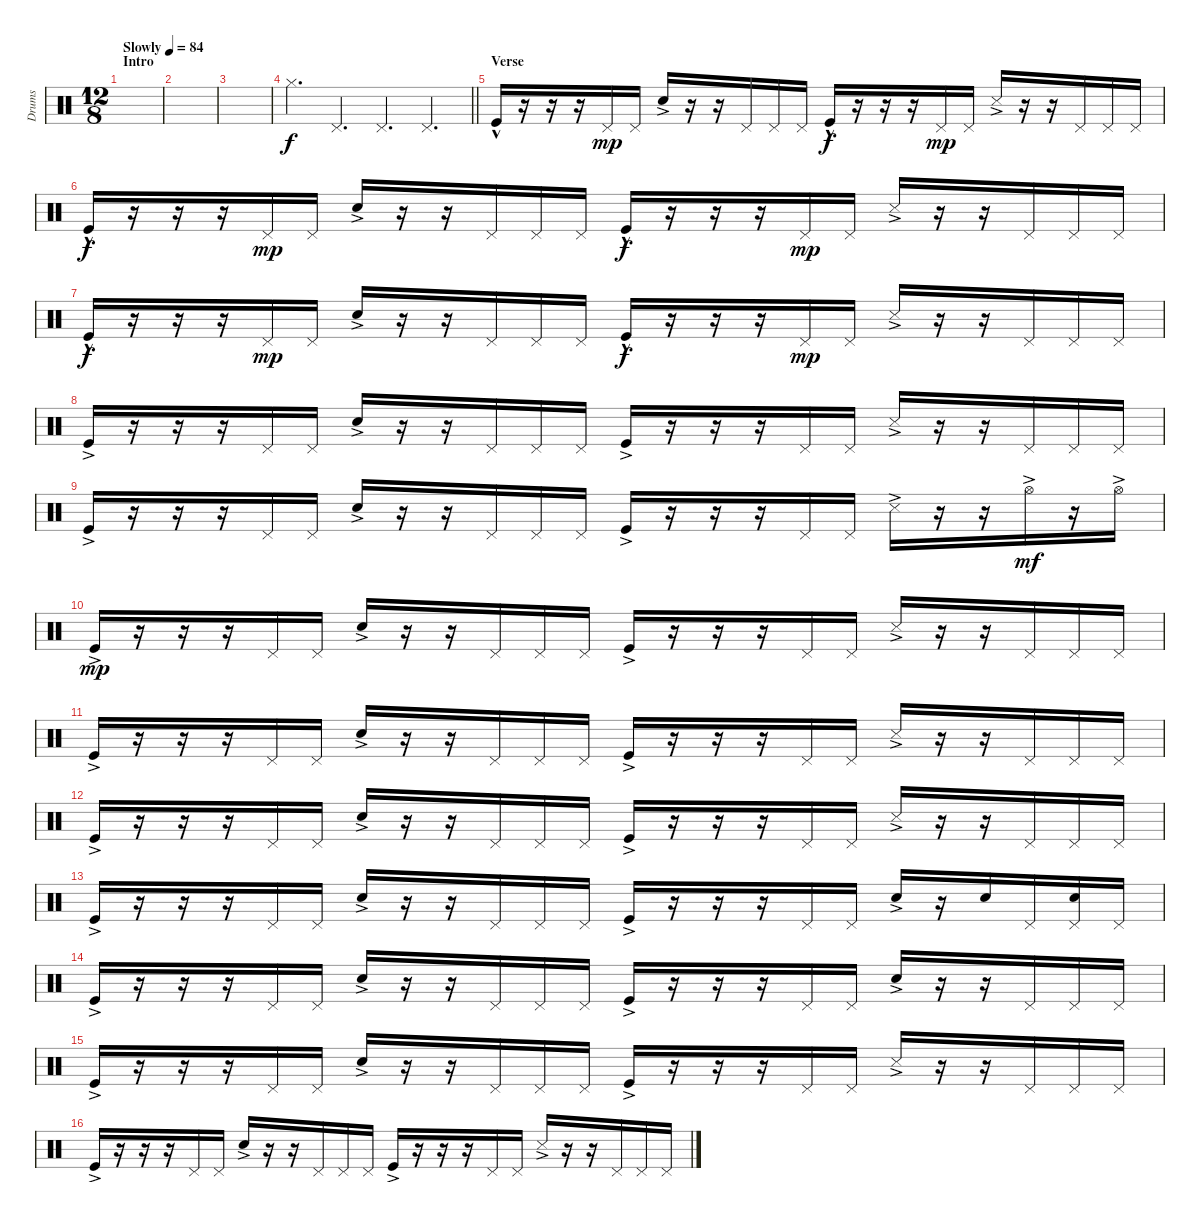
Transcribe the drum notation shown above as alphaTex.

\track ("Drums" "Drums") {instrument percussion}
\staff {score}
\articulation defaults
\ts (12 8)
\section ("" "Intro")
\tempo (84 "Slowly")
\clef neutral
\ks c
|
|
|
\barLineRight lightlight "Hi-Hat (closed)".4{d} "Pedal Hi-Hat (hit)".4{d} "Pedal Hi-Hat (hit)".4{d} "Pedal Hi-Hat (hit)".4{d}
|
\section ("" "Verse")
"Kick (hit)"{hac}.16{dy f} r.16 r.16 r.16 "Pedal Hi-Hat (hit)".16{dy mp} "Pedal Hi-Hat (hit)".16 "Electric Snare (hit)"{ac}.16 r.16 r.16 "Pedal Hi-Hat (hit)".16 "Pedal Hi-Hat (hit)".16 "Pedal Hi-Hat (hit)".16 "Kick (hit)"{hac}.16{dy f} r.16 r.16 r.16 "Pedal Hi-Hat (hit)".16{dy mp} "Pedal Hi-Hat (hit)".16 "Snare (side stick) 3"{ac}.16 r.16 r.16 "Pedal Hi-Hat (hit)".16 "Pedal Hi-Hat (hit)".16 "Pedal Hi-Hat (hit)".16 |
"Kick (hit)"{hac}.16{dy f} r.16 r.16 r.16 "Pedal Hi-Hat (hit)".16{dy mp} "Pedal Hi-Hat (hit)".16 "Electric Snare (hit)"{ac}.16 r.16 r.16 "Pedal Hi-Hat (hit)".16 "Pedal Hi-Hat (hit)".16 "Pedal Hi-Hat (hit)".16 "Kick (hit)"{hac}.16{dy f} r.16 r.16 r.16 "Pedal Hi-Hat (hit)".16{dy mp} "Pedal Hi-Hat (hit)".16 "Snare (side stick) 3"{ac}.16 r.16 r.16 "Pedal Hi-Hat (hit)".16 "Pedal Hi-Hat (hit)".16 "Pedal Hi-Hat (hit)".16 |
"Kick (hit)"{hac}.16{dy f} r.16 r.16 r.16 "Pedal Hi-Hat (hit)".16{dy mp} "Pedal Hi-Hat (hit)".16 "Electric Snare (hit)"{ac}.16 r.16 r.16 "Pedal Hi-Hat (hit)".16 "Pedal Hi-Hat (hit)".16 "Pedal Hi-Hat (hit)".16 "Kick (hit)"{hac}.16{dy f} r.16 r.16 r.16 "Pedal Hi-Hat (hit)".16{dy mp} "Pedal Hi-Hat (hit)".16 "Snare (side stick) 3"{ac}.16 r.16 r.16 "Pedal Hi-Hat (hit)".16 "Pedal Hi-Hat (hit)".16 "Pedal Hi-Hat (hit)".16 |
"Kick (hit)"{ac}.16 r.16 r.16 r.16 "Pedal Hi-Hat (hit)".16 "Pedal Hi-Hat (hit)".16 "Electric Snare (hit)"{ac}.16 r.16 r.16 "Pedal Hi-Hat (hit)".16 "Pedal Hi-Hat (hit)".16 "Pedal Hi-Hat (hit)".16 "Kick (hit)"{ac}.16 r.16 r.16 r.16 "Pedal Hi-Hat (hit)".16 "Pedal Hi-Hat (hit)".16 "Snare (side stick) 3"{ac}.16 r.16 r.16 "Pedal Hi-Hat (hit)".16 "Pedal Hi-Hat (hit)".16 "Pedal Hi-Hat (hit)".16 |
"Kick (hit)"{ac}.16 r.16 r.16 r.16 "Pedal Hi-Hat (hit)".16 "Pedal Hi-Hat (hit)".16 "Electric Snare (hit)"{ac}.16 r.16 r.16 "Pedal Hi-Hat (hit)".16 "Pedal Hi-Hat (hit)".16 "Pedal Hi-Hat (hit)".16 "Kick (hit)"{ac}.16 r.16 r.16 r.16 "Pedal Hi-Hat (hit)".16 "Pedal Hi-Hat (hit)".16 "Snare (side stick) 3"{ac}.16 r.16 r.16 "Hi-Hat (open)"{ac}.16{dy mf} r.16 "Hi-Hat (open)"{ac}.16 |
"Kick (hit)"{ac}.16{dy mp} r.16 r.16 r.16 "Pedal Hi-Hat (hit)".16 "Pedal Hi-Hat (hit)".16 "Electric Snare (hit)"{ac}.16 r.16 r.16 "Pedal Hi-Hat (hit)".16 "Pedal Hi-Hat (hit)".16 "Pedal Hi-Hat (hit)".16 "Kick (hit)"{ac}.16 r.16 r.16 r.16 "Pedal Hi-Hat (hit)".16 "Pedal Hi-Hat (hit)".16 "Snare (side stick) 3"{ac}.16 r.16 r.16 "Pedal Hi-Hat (hit)".16 "Pedal Hi-Hat (hit)".16 "Pedal Hi-Hat (hit)".16 |
"Kick (hit)"{ac}.16 r.16 r.16 r.16 "Pedal Hi-Hat (hit)".16 "Pedal Hi-Hat (hit)".16 "Electric Snare (hit)"{ac}.16 r.16 r.16 "Pedal Hi-Hat (hit)".16 "Pedal Hi-Hat (hit)".16 "Pedal Hi-Hat (hit)".16 "Kick (hit)"{ac}.16 r.16 r.16 r.16 "Pedal Hi-Hat (hit)".16 "Pedal Hi-Hat (hit)".16 "Snare (side stick) 3"{ac}.16 r.16 r.16 "Pedal Hi-Hat (hit)".16 "Pedal Hi-Hat (hit)".16 "Pedal Hi-Hat (hit)".16 |
"Kick (hit)"{ac}.16 r.16 r.16 r.16 "Pedal Hi-Hat (hit)".16 "Pedal Hi-Hat (hit)".16 "Electric Snare (hit)"{ac}.16 r.16 r.16 "Pedal Hi-Hat (hit)".16 "Pedal Hi-Hat (hit)".16 "Pedal Hi-Hat (hit)".16 "Kick (hit)"{ac}.16 r.16 r.16 r.16 "Pedal Hi-Hat (hit)".16 "Pedal Hi-Hat (hit)".16 "Snare (side stick) 3"{ac}.16 r.16 r.16 "Pedal Hi-Hat (hit)".16 "Pedal Hi-Hat (hit)".16 "Pedal Hi-Hat (hit)".16 |
"Kick (hit)"{ac}.16 r.16 r.16 r.16 "Pedal Hi-Hat (hit)".16 "Pedal Hi-Hat (hit)".16 "Electric Snare (hit)"{ac}.16 r.16 r.16 "Pedal Hi-Hat (hit)".16 "Pedal Hi-Hat (hit)".16 "Pedal Hi-Hat (hit)".16 "Kick (hit)"{ac}.16 r.16 r.16 r.16 "Pedal Hi-Hat (hit)".16 "Pedal Hi-Hat (hit)".16 "Electric Snare (hit)"{ac}.16 r.16 "Electric Snare (hit)".16 "Pedal Hi-Hat (hit)".16 ("Pedal Hi-Hat (hit)" "Electric Snare (hit)").16 "Pedal Hi-Hat (hit)".16 |
"Kick (hit)"{ac}.16 r.16 r.16 r.16 "Pedal Hi-Hat (hit)".16 "Pedal Hi-Hat (hit)".16 "Electric Snare (hit)"{ac}.16 r.16 r.16 "Pedal Hi-Hat (hit)".16 "Pedal Hi-Hat (hit)".16 "Pedal Hi-Hat (hit)".16 "Kick (hit)"{ac}.16 r.16 r.16 r.16 "Pedal Hi-Hat (hit)".16 "Pedal Hi-Hat (hit)".16 "Electric Snare (hit)"{ac}.16 r.16 r.16 "Pedal Hi-Hat (hit)".16 "Pedal Hi-Hat (hit)".16 "Pedal Hi-Hat (hit)".16 |
"Kick (hit)"{ac}.16 r.16 r.16 r.16 "Pedal Hi-Hat (hit)".16 "Pedal Hi-Hat (hit)".16 "Electric Snare (hit)"{ac}.16 r.16 r.16 "Pedal Hi-Hat (hit)".16 "Pedal Hi-Hat (hit)".16 "Pedal Hi-Hat (hit)".16 "Kick (hit)"{ac}.16 r.16 r.16 r.16 "Pedal Hi-Hat (hit)".16 "Pedal Hi-Hat (hit)".16 "Snare (side stick) 3"{ac}.16 r.16 r.16 "Pedal Hi-Hat (hit)".16 "Pedal Hi-Hat (hit)".16 "Pedal Hi-Hat (hit)".16 |
"Kick (hit)"{ac}.16 r.16 r.16 r.16 "Pedal Hi-Hat (hit)".16 "Pedal Hi-Hat (hit)".16 "Electric Snare (hit)"{ac}.16 r.16 r.16 "Pedal Hi-Hat (hit)".16 "Pedal Hi-Hat (hit)".16 "Pedal Hi-Hat (hit)".16 "Kick (hit)"{ac}.16 r.16 r.16 r.16 "Pedal Hi-Hat (hit)".16 "Pedal Hi-Hat (hit)".16 "Snare (side stick) 3"{ac}.16 r.16 r.16 "Pedal Hi-Hat (hit)".16 "Pedal Hi-Hat (hit)".16 "Pedal Hi-Hat (hit)".16
